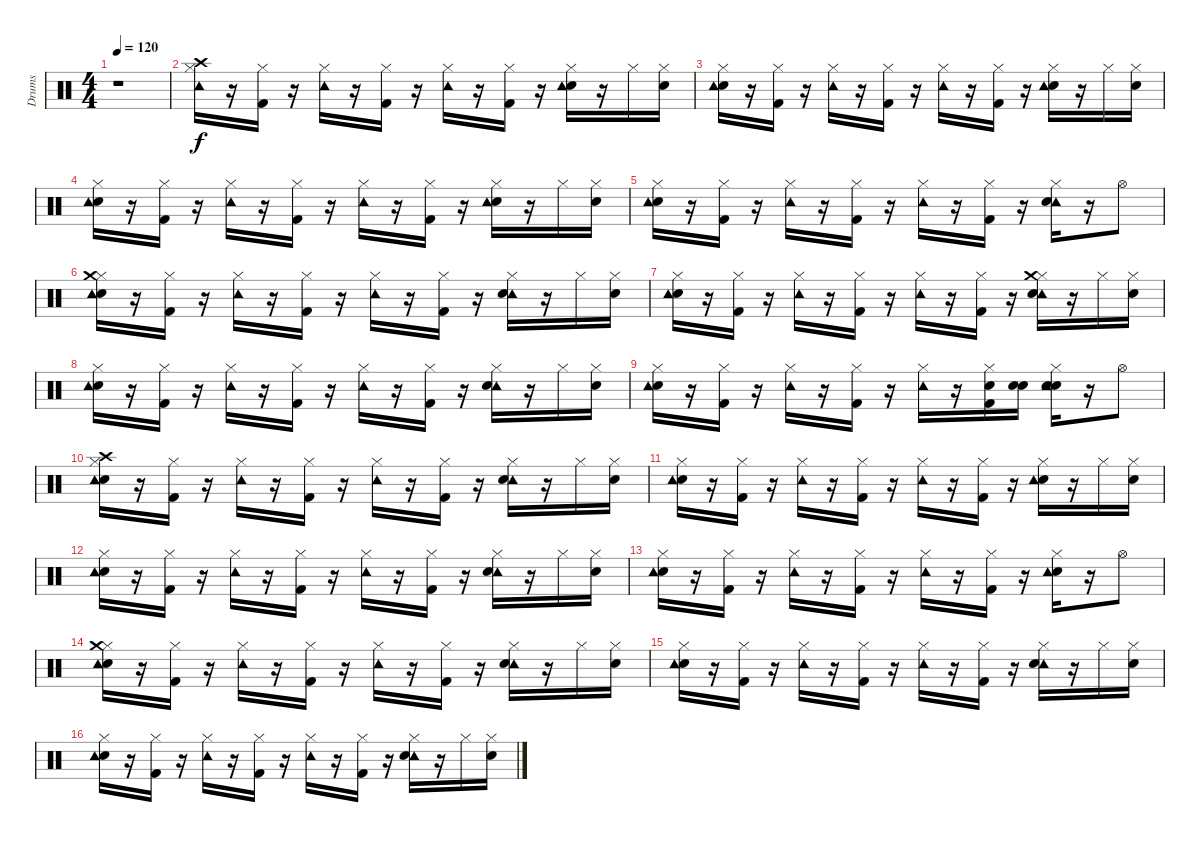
\track ("Drums" "Drums") {instrument percussion}
\staff {score}
\articulation defaults
\ts (4 4)
\tempo 120
\clef neutral
\ks c
r.1{dy f} |
("Hi-Hat (closed)" "Crash high (hit)" "Tambourine (hit)").16 r.16 ("Hi-Hat (closed)" "Kick (hit) 2").16 r.16 ("Tambourine (hit)" "Hi-Hat (closed)").16 r.16 ("Hi-Hat (closed)" "Kick (hit) 2").16 r.16 ("Hi-Hat (closed)" "Tambourine (hit)").16 r.16 ("Kick (hit) 2" "Hi-Hat (closed)").16 r.16 ("Snare (hit) 2" "Hi-Hat (closed)" "Tambourine (hit)").16 r.16 "Hi-Hat (closed)".16 ("Snare (hit)" "Hi-Hat (closed)").16 |
("Snare (hit)" "Hi-Hat (closed)" "Tambourine (hit)").16 r.16 ("Kick (hit) 2" "Hi-Hat (closed)").16 r.16 ("Hi-Hat (closed)" "Tambourine (hit)").16 r.16 ("Hi-Hat (closed)" "Kick (hit) 2").16 r.16 ("Tambourine (hit)" "Hi-Hat (closed)").16 r.16 ("Hi-Hat (closed)" "Kick (hit) 2").16 r.16 ("Hi-Hat (closed)" "Snare (hit) 2" "Tambourine (hit)").16 r.16 "Hi-Hat (closed)".16 ("Snare (hit)" "Hi-Hat (closed)").16 |
("Snare (hit)" "Hi-Hat (closed)" "Tambourine (hit)").16 r.16 ("Hi-Hat (closed)" "Kick (hit) 2").16 r.16 ("Hi-Hat (closed)" "Tambourine (hit)").16 r.16 ("Hi-Hat (closed)" "Kick (hit) 2").16 r.16 ("Hi-Hat (closed)" "Tambourine (hit)").16 r.16 ("Hi-Hat (closed)" "Kick (hit) 2").16 r.16 ("Snare (hit) 2" "Hi-Hat (closed)" "Tambourine (hit)").16 r.16 "Hi-Hat (closed)".16 ("Snare (hit)" "Hi-Hat (closed)").16 |
("Snare (hit)" "Hi-Hat (closed)" "Tambourine (hit)").16 r.16 ("Kick (hit) 2" "Hi-Hat (closed)").16 r.16 ("Tambourine (hit)" "Hi-Hat (closed)").16 r.16 ("Hi-Hat (closed)" "Kick (hit) 2").16 r.16 ("Hi-Hat (closed)" "Tambourine (hit)").16 r.16 ("Kick (hit) 2" "Hi-Hat (closed)").16 r.16 ("Hi-Hat (closed)" "Tambourine (hit)" "Snare (hit) 2").16 r.16 "Hi-Hat (open)".8 |
("Snare (hit)" "Tambourine (hit)" "Hi-Hat (closed)" "Crash medium (hit)").16 r.16 ("Kick (hit) 2" "Hi-Hat (closed)").16 r.16 ("Tambourine (hit)" "Hi-Hat (closed)").16 r.16 ("Hi-Hat (closed)" "Kick (hit) 2").16 r.16 ("Tambourine (hit)" "Hi-Hat (closed)").16 r.16 ("Hi-Hat (closed)" "Kick (hit) 2").16 r.16 ("Hi-Hat (closed)" "Tambourine (hit)" "Snare (hit) 2").16 r.16 "Hi-Hat (closed)".16 ("Snare (hit)" "Hi-Hat (closed)").16 |
("Snare (hit)" "Tambourine (hit)" "Hi-Hat (closed)").16 r.16 ("Hi-Hat (closed)" "Kick (hit) 2").16 r.16 ("Hi-Hat (closed)" "Tambourine (hit)").16 r.16 ("Kick (hit) 2" "Hi-Hat (closed)").16 r.16 ("Tambourine (hit)" "Hi-Hat (closed)").16 r.16 ("Kick (hit) 2" "Hi-Hat (closed)").16 r.16 ("Tambourine (hit)" "Hi-Hat (closed)" "Crash medium (hit)" "Snare (hit) 2").16 r.16 "Hi-Hat (closed)".16 ("Snare (hit)" "Hi-Hat (closed)").16 |
("Snare (hit)" "Hi-Hat (closed)" "Tambourine (hit)").16 r.16 ("Hi-Hat (closed)" "Kick (hit) 2").16 r.16 ("Hi-Hat (closed)" "Tambourine (hit)").16 r.16 ("Kick (hit) 2" "Hi-Hat (closed)").16 r.16 ("Hi-Hat (closed)" "Tambourine (hit)").16 r.16 ("Kick (hit) 2" "Hi-Hat (closed)").16 r.16 ("Tambourine (hit)" "Snare (hit) 2" "Hi-Hat (closed)").16 r.16 "Hi-Hat (closed)".16 ("Snare (hit)" "Hi-Hat (closed)").16 |
("Snare (hit)" "Tambourine (hit)" "Hi-Hat (closed)").16 r.16 ("Kick (hit) 2" "Hi-Hat (closed)").16 r.16 ("Hi-Hat (closed)" "Tambourine (hit)").16 r.16 ("Kick (hit) 2" "Hi-Hat (closed)").16 r.16 ("Hi-Hat (closed)" "Tambourine (hit)").16 r.16 ("Kick (hit) 2" "Hi-Hat (closed)" "Snare (hit) 2").16 ("Snare (hit)" "Snare (hit) 2").16 ("Snare (hit)" "Tambourine (hit)" "Hi-Hat (closed)" "Snare (hit) 2").16 r.16 "Hi-Hat (open)".8 |
("Snare (hit)" "Crash high (hit)" "Tambourine (hit)" "Hi-Hat (closed)").16 r.16 ("Hi-Hat (closed)" "Kick (hit) 2").16 r.16 ("Tambourine (hit)" "Hi-Hat (closed)").16 r.16 ("Kick (hit) 2" "Hi-Hat (closed)").16 r.16 ("Tambourine (hit)" "Hi-Hat (closed)").16 r.16 ("Hi-Hat (closed)" "Kick (hit) 2").16 r.16 ("Tambourine (hit)" "Hi-Hat (closed)" "Snare (hit) 2").16 r.16 "Hi-Hat (closed)".16 ("Snare (hit)" "Hi-Hat (closed)").16 |
("Snare (hit)" "Tambourine (hit)" "Hi-Hat (closed)").16 r.16 ("Hi-Hat (closed)" "Kick (hit) 2").16 r.16 ("Tambourine (hit)" "Hi-Hat (closed)").16 r.16 ("Hi-Hat (closed)" "Kick (hit) 2").16 r.16 ("Tambourine (hit)" "Hi-Hat (closed)").16 r.16 ("Kick (hit) 2" "Hi-Hat (closed)").16 r.16 ("Snare (hit) 2" "Tambourine (hit)" "Hi-Hat (closed)").16 r.16 "Hi-Hat (closed)".16 ("Snare (hit)" "Hi-Hat (closed)").16 |
("Snare (hit)" "Hi-Hat (closed)" "Tambourine (hit)").16 r.16 ("Hi-Hat (closed)" "Kick (hit) 2").16 r.16 ("Tambourine (hit)" "Hi-Hat (closed)").16 r.16 ("Kick (hit) 2" "Hi-Hat (closed)").16 r.16 ("Tambourine (hit)" "Hi-Hat (closed)").16 r.16 ("Hi-Hat (closed)" "Kick (hit) 2").16 r.16 ("Hi-Hat (closed)" "Tambourine (hit)" "Snare (hit) 2").16 r.16 "Hi-Hat (closed)".16 ("Snare (hit)" "Hi-Hat (closed)").16 |
("Snare (hit)" "Hi-Hat (closed)" "Tambourine (hit)").16 r.16 ("Hi-Hat (closed)" "Kick (hit) 2").16 r.16 ("Hi-Hat (closed)" "Tambourine (hit)").16 r.16 ("Hi-Hat (closed)" "Kick (hit) 2").16 r.16 ("Hi-Hat (closed)" "Tambourine (hit)").16 r.16 ("Kick (hit) 2" "Hi-Hat (closed)").16 r.16 ("Snare (hit) 2" "Hi-Hat (closed)" "Tambourine (hit)").16 r.16 "Hi-Hat (open)".8 |
("Snare (hit)" "Tambourine (hit)" "Hi-Hat (closed)" "Crash medium (hit)").16 r.16 ("Hi-Hat (closed)" "Kick (hit) 2").16 r.16 ("Hi-Hat (closed)" "Tambourine (hit)").16 r.16 ("Kick (hit) 2" "Hi-Hat (closed)").16 r.16 ("Hi-Hat (closed)" "Tambourine (hit)").16 r.16 ("Kick (hit) 2" "Hi-Hat (closed)").16 r.16 ("Tambourine (hit)" "Hi-Hat (closed)" "Snare (hit) 2").16 r.16 "Hi-Hat (closed)".16 ("Snare (hit)" "Hi-Hat (closed)").16 |
("Snare (hit)" "Tambourine (hit)" "Hi-Hat (closed)").16 r.16 ("Kick (hit) 2" "Hi-Hat (closed)").16 r.16 ("Hi-Hat (closed)" "Tambourine (hit)").16 r.16 ("Kick (hit) 2" "Hi-Hat (closed)").16 r.16 ("Hi-Hat (closed)" "Tambourine (hit)").16 r.16 ("Hi-Hat (closed)" "Kick (hit) 2").16 r.16 ("Hi-Hat (closed)" "Tambourine (hit)" "Snare (hit) 2").16 r.16 "Hi-Hat (closed)".16 ("Snare (hit)" "Hi-Hat (closed)").16 |
("Snare (hit)" "Hi-Hat (closed)" "Tambourine (hit)").16 r.16 ("Hi-Hat (closed)" "Kick (hit) 2").16 r.16 ("Tambourine (hit)" "Hi-Hat (closed)").16 r.16 ("Kick (hit) 2" "Hi-Hat (closed)").16 r.16 ("Hi-Hat (closed)" "Tambourine (hit)").16 r.16 ("Kick (hit) 2" "Hi-Hat (closed)").16 r.16 ("Tambourine (hit)" "Snare (hit) 2" "Hi-Hat (closed)").16 r.16 "Hi-Hat (closed)".16 ("Snare (hit)" "Hi-Hat (closed)").16
